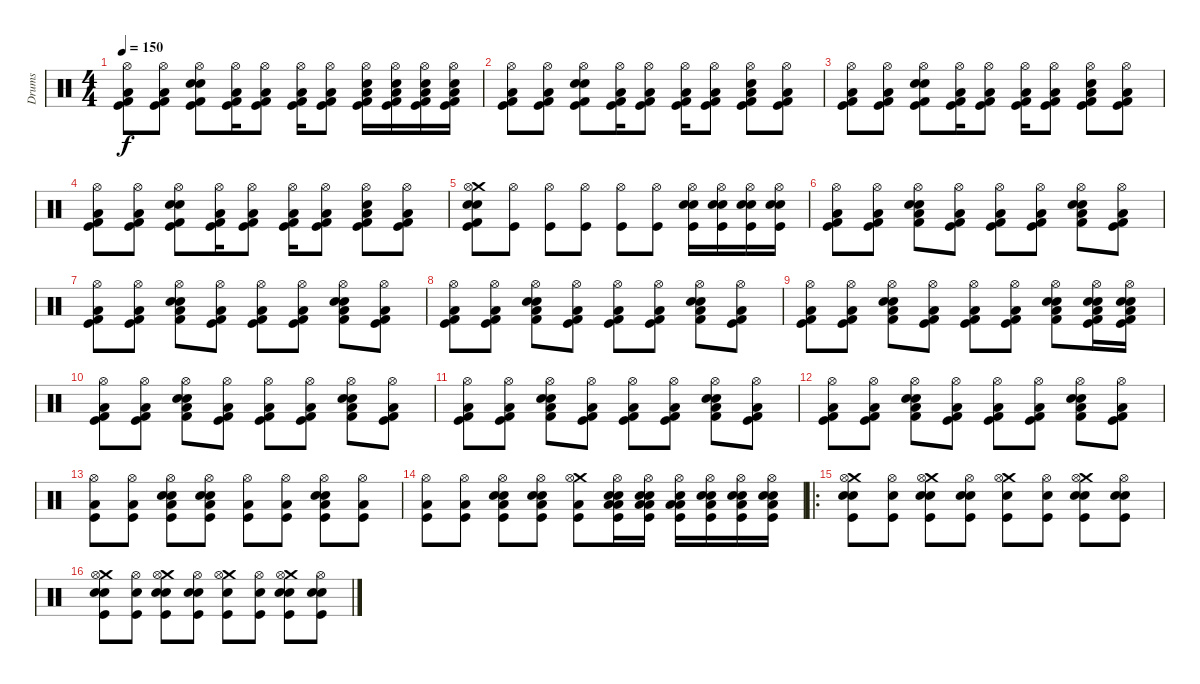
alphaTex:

\track ("Drums" "Drums") {instrument percussion}
\staff {score}
\articulation defaults
\ts (4 4)
\tempo 150
\clef neutral
\ks c
("Hi-Hat (open)" "Kick (hit) 2" "Low Floor Tom (hit)" "Kick (hit)").8{dy f} ("Hi-Hat (open)" "Kick (hit) 2" "Low Floor Tom (hit)" "Kick (hit)").8 ("Hi-Hat (open)" "Snare (hit) 2" "Kick (hit) 2" "Electric Snare (hit)" "Kick (hit)").8 ("Hi-Hat (open)" "Low Floor Tom (hit)" "Kick (hit) 2" "Kick (hit)").16 ("Hi-Hat (open)" "Low Floor Tom (hit)" "Kick (hit) 2" "Kick (hit)").8 ("Hi-Hat (open)" "Low Floor Tom (hit)" "Kick (hit) 2" "Kick (hit)").16 ("Hi-Hat (open)" "Low Floor Tom (hit)" "Kick (hit) 2" "Kick (hit)").8 ("Hi-Hat (open)" "Snare (hit) 2" "Low Floor Tom (hit)" "Kick (hit) 2" "Kick (hit)").16 ("Hi-Hat (open)" "Snare (hit) 2" "Low Floor Tom (hit)" "Kick (hit) 2" "Kick (hit)").16 ("Hi-Hat (open)" "Snare (hit) 2" "Low Floor Tom (hit)" "Kick (hit) 2" "Kick (hit)").16 ("Hi-Hat (open)" "Snare (hit) 2" "Low Floor Tom (hit)" "Kick (hit) 2" "Kick (hit)").16 |
("Hi-Hat (open)" "Kick (hit) 2" "Low Floor Tom (hit)" "Kick (hit)").8 ("Hi-Hat (open)" "Kick (hit) 2" "Low Floor Tom (hit)" "Kick (hit)").8 ("Hi-Hat (open)" "Snare (hit) 2" "Kick (hit) 2" "Electric Snare (hit)" "Kick (hit)").8 ("Hi-Hat (open)" "Low Floor Tom (hit)" "Kick (hit) 2" "Kick (hit)").16 ("Hi-Hat (open)" "Low Floor Tom (hit)" "Kick (hit) 2" "Kick (hit)").8 ("Hi-Hat (open)" "Low Floor Tom (hit)" "Kick (hit) 2" "Kick (hit)").16 ("Hi-Hat (open)" "Low Floor Tom (hit)" "Kick (hit) 2" "Kick (hit)").8 ("Hi-Hat (open)" "Snare (hit) 2" "Low Floor Tom (hit)" "Kick (hit) 2" "Kick (hit)").8 ("Hi-Hat (open)" "Low Floor Tom (hit)" "Kick (hit) 2" "Kick (hit)").8 |
("Hi-Hat (open)" "Kick (hit) 2" "Low Floor Tom (hit)" "Kick (hit)").8 ("Hi-Hat (open)" "Kick (hit) 2" "Low Floor Tom (hit)" "Kick (hit)").8 ("Hi-Hat (open)" "Snare (hit) 2" "Kick (hit) 2" "Electric Snare (hit)" "Kick (hit)").8 ("Hi-Hat (open)" "Low Floor Tom (hit)" "Kick (hit) 2" "Kick (hit)").16 ("Hi-Hat (open)" "Low Floor Tom (hit)" "Kick (hit) 2" "Kick (hit)").8 ("Hi-Hat (open)" "Low Floor Tom (hit)" "Kick (hit) 2" "Kick (hit)").16 ("Hi-Hat (open)" "Low Floor Tom (hit)" "Kick (hit) 2" "Kick (hit)").8 ("Hi-Hat (open)" "Snare (hit) 2" "Low Floor Tom (hit)" "Kick (hit) 2" "Kick (hit)").8 ("Hi-Hat (open)" "Low Floor Tom (hit)" "Kick (hit) 2" "Kick (hit)").8 |
("Hi-Hat (open)" "Kick (hit) 2" "Low Floor Tom (hit)" "Kick (hit)").8 ("Hi-Hat (open)" "Kick (hit) 2" "Low Floor Tom (hit)" "Kick (hit)").8 ("Hi-Hat (open)" "Snare (hit) 2" "Kick (hit) 2" "Electric Snare (hit)" "Kick (hit)").8 ("Hi-Hat (open)" "Low Floor Tom (hit)" "Kick (hit) 2" "Kick (hit)").16 ("Hi-Hat (open)" "Low Floor Tom (hit)" "Kick (hit) 2" "Kick (hit)").8 ("Hi-Hat (open)" "Low Floor Tom (hit)" "Kick (hit) 2" "Kick (hit)").16 ("Hi-Hat (open)" "Low Floor Tom (hit)" "Kick (hit) 2" "Kick (hit)").8 ("Hi-Hat (open)" "Snare (hit) 2" "Low Floor Tom (hit)" "Kick (hit) 2" "Kick (hit)").8 ("Hi-Hat (open)" "Low Floor Tom (hit)" "Kick (hit) 2" "Kick (hit)").8 |
("Crash medium (hit)" "Snare (hit) 2" "Electric Snare (hit)" "Hi-Hat (open)" "Kick (hit) 2" "Kick (hit)").8 ("Hi-Hat (open)" "Kick (hit)").8 ("Hi-Hat (open)" "Kick (hit)").8 ("Hi-Hat (open)" "Kick (hit)").8 ("Hi-Hat (open)" "Kick (hit)").8 ("Hi-Hat (open)" "Kick (hit)").8 ("Electric Snare (hit)" "Snare (hit) 2" "Hi-Hat (open)" "Kick (hit)").16 ("Electric Snare (hit)" "Snare (hit) 2" "Hi-Hat (open)" "Kick (hit)").16 ("Electric Snare (hit)" "Snare (hit) 2" "Hi-Hat (open)" "Kick (hit)").16 ("Electric Snare (hit)" "Snare (hit) 2" "Hi-Hat (open)" "Kick (hit)").16 |
("Kick (hit) 2" "Hi-Hat (open)" "Low Floor Tom (hit)" "Kick (hit)").8 ("Kick (hit) 2" "Hi-Hat (open)" "Low Floor Tom (hit)" "Kick (hit)").8 ("Snare (hit) 2" "Kick (hit) 2" "Hi-Hat (open)" "Low Floor Tom (hit)" "Electric Snare (hit)").8 ("Kick (hit) 2" "Hi-Hat (open)" "Low Floor Tom (hit)" "Kick (hit)").8 ("Kick (hit) 2" "Hi-Hat (open)" "Low Floor Tom (hit)" "Kick (hit)").8 ("Kick (hit) 2" "Hi-Hat (open)" "Low Floor Tom (hit)" "Kick (hit)").8 ("Snare (hit) 2" "Kick (hit) 2" "Hi-Hat (open)" "Low Floor Tom (hit)" "Electric Snare (hit)").8 ("Kick (hit) 2" "Hi-Hat (open)" "Low Floor Tom (hit)" "Kick (hit)").8 |
("Kick (hit) 2" "Hi-Hat (open)" "Low Floor Tom (hit)" "Kick (hit)").8 ("Kick (hit) 2" "Hi-Hat (open)" "Low Floor Tom (hit)" "Kick (hit)").8 ("Snare (hit) 2" "Kick (hit) 2" "Hi-Hat (open)" "Low Floor Tom (hit)" "Electric Snare (hit)").8 ("Kick (hit) 2" "Hi-Hat (open)" "Low Floor Tom (hit)" "Kick (hit)").8 ("Kick (hit) 2" "Hi-Hat (open)" "Low Floor Tom (hit)" "Kick (hit)").8 ("Kick (hit) 2" "Hi-Hat (open)" "Low Floor Tom (hit)" "Kick (hit)").8 ("Snare (hit) 2" "Kick (hit) 2" "Hi-Hat (open)" "Low Floor Tom (hit)" "Electric Snare (hit)").8 ("Kick (hit) 2" "Hi-Hat (open)" "Low Floor Tom (hit)" "Kick (hit)").8 |
("Kick (hit) 2" "Hi-Hat (open)" "Low Floor Tom (hit)" "Kick (hit)").8 ("Kick (hit) 2" "Hi-Hat (open)" "Low Floor Tom (hit)" "Kick (hit)").8 ("Snare (hit) 2" "Kick (hit) 2" "Hi-Hat (open)" "Low Floor Tom (hit)" "Electric Snare (hit)").8 ("Kick (hit) 2" "Hi-Hat (open)" "Low Floor Tom (hit)" "Kick (hit)").8 ("Kick (hit) 2" "Hi-Hat (open)" "Low Floor Tom (hit)" "Kick (hit)").8 ("Kick (hit) 2" "Hi-Hat (open)" "Low Floor Tom (hit)" "Kick (hit)").8 ("Snare (hit) 2" "Kick (hit) 2" "Hi-Hat (open)" "Low Floor Tom (hit)" "Electric Snare (hit)").8 ("Kick (hit) 2" "Hi-Hat (open)" "Low Floor Tom (hit)" "Kick (hit)").8 |
("Kick (hit) 2" "Hi-Hat (open)" "Low Floor Tom (hit)" "Kick (hit)").8 ("Kick (hit) 2" "Hi-Hat (open)" "Low Floor Tom (hit)" "Kick (hit)").8 ("Snare (hit) 2" "Kick (hit) 2" "Hi-Hat (open)" "Low Floor Tom (hit)" "Electric Snare (hit)").8 ("Kick (hit) 2" "Hi-Hat (open)" "Low Floor Tom (hit)" "Kick (hit)").8 ("Kick (hit) 2" "Hi-Hat (open)" "Low Floor Tom (hit)" "Kick (hit)").8 ("Kick (hit) 2" "Hi-Hat (open)" "Low Floor Tom (hit)" "Kick (hit)").8 ("Snare (hit) 2" "Kick (hit) 2" "Hi-Hat (open)" "Low Floor Tom (hit)" "Electric Snare (hit)").8 ("Snare (hit) 2" "Kick (hit) 2" "Hi-Hat (open)" "Low Floor Tom (hit)" "Kick (hit)" "Electric Snare (hit)").16 ("Snare (hit) 2" "Kick (hit) 2" "Hi-Hat (open)" "Low Floor Tom (hit)" "Kick (hit)" "Electric Snare (hit)").16 |
("Kick (hit) 2" "Hi-Hat (open)" "Low Floor Tom (hit)" "Kick (hit)").8 ("Kick (hit) 2" "Hi-Hat (open)" "Low Floor Tom (hit)" "Kick (hit)").8 ("Snare (hit) 2" "Kick (hit) 2" "Hi-Hat (open)" "Low Floor Tom (hit)" "Electric Snare (hit)").8 ("Kick (hit) 2" "Hi-Hat (open)" "Low Floor Tom (hit)" "Kick (hit)").8 ("Kick (hit) 2" "Hi-Hat (open)" "Low Floor Tom (hit)" "Kick (hit)").8 ("Kick (hit) 2" "Hi-Hat (open)" "Low Floor Tom (hit)" "Kick (hit)").8 ("Snare (hit) 2" "Kick (hit) 2" "Hi-Hat (open)" "Low Floor Tom (hit)" "Electric Snare (hit)").8 ("Kick (hit) 2" "Hi-Hat (open)" "Low Floor Tom (hit)" "Kick (hit)").8 |
("Kick (hit) 2" "Hi-Hat (open)" "Low Floor Tom (hit)" "Kick (hit)").8 ("Kick (hit) 2" "Hi-Hat (open)" "Low Floor Tom (hit)" "Kick (hit)").8 ("Snare (hit) 2" "Kick (hit) 2" "Hi-Hat (open)" "Low Floor Tom (hit)" "Electric Snare (hit)").8 ("Kick (hit) 2" "Hi-Hat (open)" "Low Floor Tom (hit)" "Kick (hit)").8 ("Kick (hit) 2" "Hi-Hat (open)" "Low Floor Tom (hit)" "Kick (hit)").8 ("Kick (hit) 2" "Hi-Hat (open)" "Low Floor Tom (hit)" "Kick (hit)").8 ("Snare (hit) 2" "Kick (hit) 2" "Hi-Hat (open)" "Low Floor Tom (hit)" "Electric Snare (hit)").8 ("Kick (hit) 2" "Hi-Hat (open)" "Low Floor Tom (hit)" "Kick (hit)").8 |
("Kick (hit) 2" "Hi-Hat (open)" "Low Floor Tom (hit)" "Kick (hit)").8 ("Kick (hit) 2" "Hi-Hat (open)" "Low Floor Tom (hit)" "Kick (hit)").8 ("Snare (hit) 2" "Kick (hit) 2" "Hi-Hat (open)" "Low Floor Tom (hit)" "Electric Snare (hit)").8 ("Kick (hit) 2" "Hi-Hat (open)" "Low Floor Tom (hit)" "Kick (hit)").8 ("Kick (hit) 2" "Hi-Hat (open)" "Low Floor Tom (hit)" "Kick (hit)").8 ("Kick (hit) 2" "Hi-Hat (open)" "Low Floor Tom (hit)" "Kick (hit)").8 ("Snare (hit) 2" "Kick (hit) 2" "Hi-Hat (open)" "Low Floor Tom (hit)" "Electric Snare (hit)").8 ("Kick (hit) 2" "Hi-Hat (open)" "Low Floor Tom (hit)" "Kick (hit)").8 |
("Low Floor Tom (hit)" "Hi-Hat (open)" "Kick (hit)").8 ("Low Floor Tom (hit)" "Hi-Hat (open)" "Kick (hit)").8 ("Snare (hit) 2" "Kick (hit)" "Low Floor Tom (hit)" "Hi-Hat (open)" "Electric Snare (hit)").8 ("Snare (hit) 2" "Kick (hit)" "Low Floor Tom (hit)" "Hi-Hat (open)" "Electric Snare (hit)").8 ("Low Floor Tom (hit)" "Hi-Hat (open)" "Kick (hit)").8 ("Low Floor Tom (hit)" "Hi-Hat (open)" "Kick (hit)").8 ("Snare (hit) 2" "Kick (hit)" "Low Floor Tom (hit)" "Hi-Hat (open)" "Electric Snare (hit)").8 ("Low Floor Tom (hit)" "Hi-Hat (open)" "Kick (hit)").8 |
("Low Floor Tom (hit)" "Hi-Hat (open)" "Kick (hit)").8 ("Low Floor Tom (hit)" "Hi-Hat (open)" "Kick (hit)").8 ("Snare (hit) 2" "Kick (hit)" "Low Floor Tom (hit)" "Hi-Hat (open)" "Electric Snare (hit)").8 ("Snare (hit) 2" "Kick (hit)" "Low Floor Tom (hit)" "Hi-Hat (open)" "Electric Snare (hit)").8 ("Crash medium (hit)" "Low Floor Tom (hit)" "Hi-Hat (open)" "Kick (hit)").8 ("Electric Snare (hit)" "Snare (hit) 2" "Low Floor Tom (hit)" "Hi-Hat (open)" "Kick (hit)" "Low Floor Tom (hit)").16 ("Snare (hit) 2" "Kick (hit)" "Low Floor Tom (hit)" "Hi-Hat (open)" "Electric Snare (hit)" "Low Floor Tom (hit)").16 ("Low Floor Tom (hit)" "Electric Snare (hit)" "Low Floor Tom (hit)" "Hi-Hat (open)" "Kick (hit)").16 ("Low Floor Tom (hit)" "Electric Snare (hit)" "Snare (hit) 2" "Hi-Hat (open)" "Kick (hit)").16 ("Low Floor Tom (hit)" "Electric Snare (hit)" "Snare (hit) 2" "Hi-Hat (open)" "Kick (hit)").16 ("Low Floor Tom (hit)" "Electric Snare (hit)" "Snare (hit) 2" "Hi-Hat (open)" "Kick (hit)").16 |
\ro
("Snare (hit) 2" "Crash medium (hit)" "Hi-Hat (open)" "Electric Snare (hit)" "Kick (hit)").8{volume 16} ("Hi-Hat (open)" "Electric Snare (hit)" "Kick (hit)").8 ("Crash medium (hit)" "Hi-Hat (open)" "Snare (hit) 2" "Electric Snare (hit)" "Kick (hit)").8 ("Hi-Hat (open)" "Snare (hit) 2" "Electric Snare (hit)" "Kick (hit)").8 ("Crash medium (hit)" "Hi-Hat (open)" "Electric Snare (hit)" "Kick (hit)").8 ("Hi-Hat (open)" "Electric Snare (hit)" "Kick (hit)").8 ("Crash medium (hit)" "Hi-Hat (open)" "Snare (hit) 2" "Electric Snare (hit)" "Kick (hit)").8 ("Hi-Hat (open)" "Snare (hit) 2" "Electric Snare (hit)" "Kick (hit)").8 |
("Snare (hit) 2" "Crash medium (hit)" "Hi-Hat (open)" "Electric Snare (hit)" "Kick (hit)").8 ("Hi-Hat (open)" "Electric Snare (hit)" "Kick (hit)").8 ("Crash medium (hit)" "Hi-Hat (open)" "Snare (hit) 2" "Electric Snare (hit)" "Kick (hit)").8 ("Hi-Hat (open)" "Snare (hit) 2" "Electric Snare (hit)" "Kick (hit)").8 ("Crash medium (hit)" "Hi-Hat (open)" "Electric Snare (hit)" "Kick (hit)").8 ("Hi-Hat (open)" "Electric Snare (hit)" "Kick (hit)").8 ("Crash medium (hit)" "Hi-Hat (open)" "Snare (hit) 2" "Electric Snare (hit)" "Kick (hit)").8 ("Hi-Hat (open)" "Snare (hit) 2" "Electric Snare (hit)" "Kick (hit)").8
